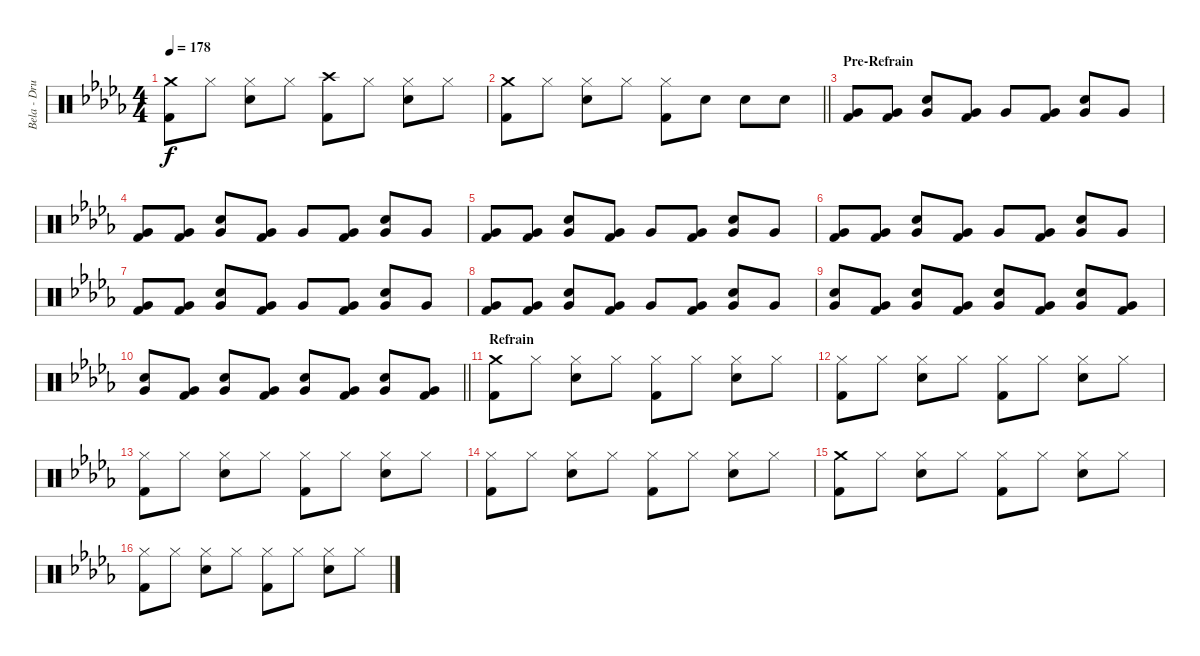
\track ("Bela - Drums" "Bela - Dru") {instrument percussion}
\staff {score}
\articulation defaults
\ts (4 4)
\tempo 178
\clef neutral
\ks db
("Crash medium (hit)" "Kick (hit) 2").8{dy f} "Hi-Hat (closed)".8 ("Hi-Hat (closed)" "Snare (hit) 2").8 "Hi-Hat (closed)".8 ("Crash high (hit)" "Kick (hit) 2").8 "Hi-Hat (closed)".8 ("Hi-Hat (closed)" "Snare (hit) 2").8 "Hi-Hat (closed)".8 |
\barLineRight lightlight
("Crash medium (hit)" "Kick (hit) 2").8 "Hi-Hat (closed)".8 ("Hi-Hat (closed)" "Snare (hit) 2").8 "Hi-Hat (closed)".8 ("Hi-Hat (closed)" "Kick (hit) 2").8 "Snare (hit) 2".8 "Snare (hit) 2".8 "Snare (hit) 2".8 |
\section ("" "Pre-Refrain")
("Very Low Tom (hit)" "Kick (hit) 2").8 ("Very Low Tom (hit)" "Kick (hit) 2").8 ("Snare (hit) 2" "Very Low Tom (hit)").8 ("Very Low Tom (hit)" "Kick (hit) 2").8 "Very Low Tom (hit)".8 ("Very Low Tom (hit)" "Kick (hit) 2").8 ("Snare (hit) 2" "Very Low Tom (hit)").8 "Very Low Tom (hit)".8 |
("Very Low Tom (hit)" "Kick (hit) 2").8 ("Very Low Tom (hit)" "Kick (hit) 2").8 ("Snare (hit) 2" "Very Low Tom (hit)").8 ("Very Low Tom (hit)" "Kick (hit) 2").8 "Very Low Tom (hit)".8 ("Very Low Tom (hit)" "Kick (hit) 2").8 ("Snare (hit) 2" "Very Low Tom (hit)").8 "Very Low Tom (hit)".8 |
("Very Low Tom (hit)" "Kick (hit) 2").8 ("Very Low Tom (hit)" "Kick (hit) 2").8 ("Snare (hit) 2" "Very Low Tom (hit)").8 ("Very Low Tom (hit)" "Kick (hit) 2").8 "Very Low Tom (hit)".8 ("Very Low Tom (hit)" "Kick (hit) 2").8 ("Snare (hit) 2" "Very Low Tom (hit)").8 "Very Low Tom (hit)".8 |
("Very Low Tom (hit)" "Kick (hit) 2").8 ("Very Low Tom (hit)" "Kick (hit) 2").8 ("Snare (hit) 2" "Very Low Tom (hit)").8 ("Very Low Tom (hit)" "Kick (hit) 2").8 "Very Low Tom (hit)".8 ("Very Low Tom (hit)" "Kick (hit) 2").8 ("Snare (hit) 2" "Very Low Tom (hit)").8 "Very Low Tom (hit)".8 |
("Very Low Tom (hit)" "Kick (hit) 2").8 ("Very Low Tom (hit)" "Kick (hit) 2").8 ("Snare (hit) 2" "Very Low Tom (hit)").8 ("Very Low Tom (hit)" "Kick (hit) 2").8 "Very Low Tom (hit)".8 ("Very Low Tom (hit)" "Kick (hit) 2").8 ("Snare (hit) 2" "Very Low Tom (hit)").8 "Very Low Tom (hit)".8 |
("Very Low Tom (hit)" "Kick (hit) 2").8 ("Very Low Tom (hit)" "Kick (hit) 2").8 ("Snare (hit) 2" "Very Low Tom (hit)").8 ("Very Low Tom (hit)" "Kick (hit) 2").8 "Very Low Tom (hit)".8 ("Very Low Tom (hit)" "Kick (hit) 2").8 ("Snare (hit) 2" "Very Low Tom (hit)").8 "Very Low Tom (hit)".8 |
("Snare (hit) 2" "Very Low Tom (hit)").8 ("Very Low Tom (hit)" "Kick (hit) 2").8 ("Snare (hit) 2" "Very Low Tom (hit)").8 ("Very Low Tom (hit)" "Kick (hit) 2").8 ("Snare (hit) 2" "Very Low Tom (hit)").8 ("Very Low Tom (hit)" "Kick (hit) 2").8 ("Snare (hit) 2" "Very Low Tom (hit)").8 ("Very Low Tom (hit)" "Kick (hit) 2").8 |
\barLineRight lightlight
("Snare (hit) 2" "Very Low Tom (hit)").8 ("Very Low Tom (hit)" "Kick (hit) 2").8 ("Snare (hit) 2" "Very Low Tom (hit)").8 ("Very Low Tom (hit)" "Kick (hit) 2").8 ("Snare (hit) 2" "Very Low Tom (hit)").8 ("Very Low Tom (hit)" "Kick (hit) 2").8 ("Snare (hit) 2" "Very Low Tom (hit)").8 ("Very Low Tom (hit)" "Kick (hit) 2").8 |
\section ("" "Refrain")
("Crash medium (hit)" "Kick (hit) 2").8 "Hi-Hat (closed)".8 ("Hi-Hat (closed)" "Snare (hit) 2").8 "Hi-Hat (closed)".8 ("Hi-Hat (closed)" "Kick (hit) 2").8 "Hi-Hat (closed)".8 ("Hi-Hat (closed)" "Snare (hit) 2").8 "Hi-Hat (closed)".8 |
("Hi-Hat (closed)" "Kick (hit) 2").8 "Hi-Hat (closed)".8 ("Hi-Hat (closed)" "Snare (hit) 2").8 "Hi-Hat (closed)".8 ("Hi-Hat (closed)" "Kick (hit) 2").8 "Hi-Hat (closed)".8 ("Hi-Hat (closed)" "Snare (hit) 2").8 "Hi-Hat (closed)".8 |
("Hi-Hat (closed)" "Kick (hit) 2").8 "Hi-Hat (closed)".8 ("Hi-Hat (closed)" "Snare (hit) 2").8 "Hi-Hat (closed)".8 ("Hi-Hat (closed)" "Kick (hit) 2").8 "Hi-Hat (closed)".8 ("Hi-Hat (closed)" "Snare (hit) 2").8 "Hi-Hat (closed)".8 |
("Hi-Hat (closed)" "Kick (hit) 2").8 "Hi-Hat (closed)".8 ("Hi-Hat (closed)" "Snare (hit) 2").8 "Hi-Hat (closed)".8 ("Hi-Hat (closed)" "Kick (hit) 2").8 "Hi-Hat (closed)".8 ("Hi-Hat (closed)" "Snare (hit) 2").8 "Hi-Hat (closed)".8 |
("Crash medium (hit)" "Kick (hit) 2").8 "Hi-Hat (closed)".8 ("Hi-Hat (closed)" "Snare (hit) 2").8 "Hi-Hat (closed)".8 ("Hi-Hat (closed)" "Kick (hit) 2").8 "Hi-Hat (closed)".8 ("Hi-Hat (closed)" "Snare (hit) 2").8 "Hi-Hat (closed)".8 |
("Hi-Hat (closed)" "Kick (hit) 2").8 "Hi-Hat (closed)".8 ("Hi-Hat (closed)" "Snare (hit) 2").8 "Hi-Hat (closed)".8 ("Hi-Hat (closed)" "Kick (hit) 2").8 "Hi-Hat (closed)".8 ("Hi-Hat (closed)" "Snare (hit) 2").8 "Hi-Hat (closed)".8
